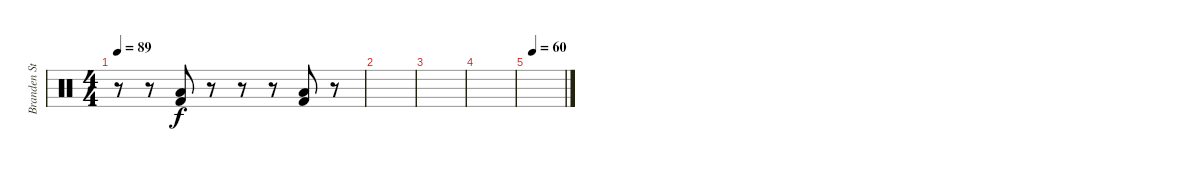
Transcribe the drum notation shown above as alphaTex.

\track ("Branden Steineckert - Drums" "Branden St") {instrument percussion}
\staff {score}
\articulation defaults
\ts (4 4)
\tempo 89
\clef neutral
\ks c
r.8{dy f} r.8 ("Low Floor Tom (hit)" "Kick (hit) 2").8 r.8 r.8 r.8 ("Low Floor Tom (hit)" "Kick (hit) 2").8 r.8 |
|
|
|
\tempo (60 0.125)
